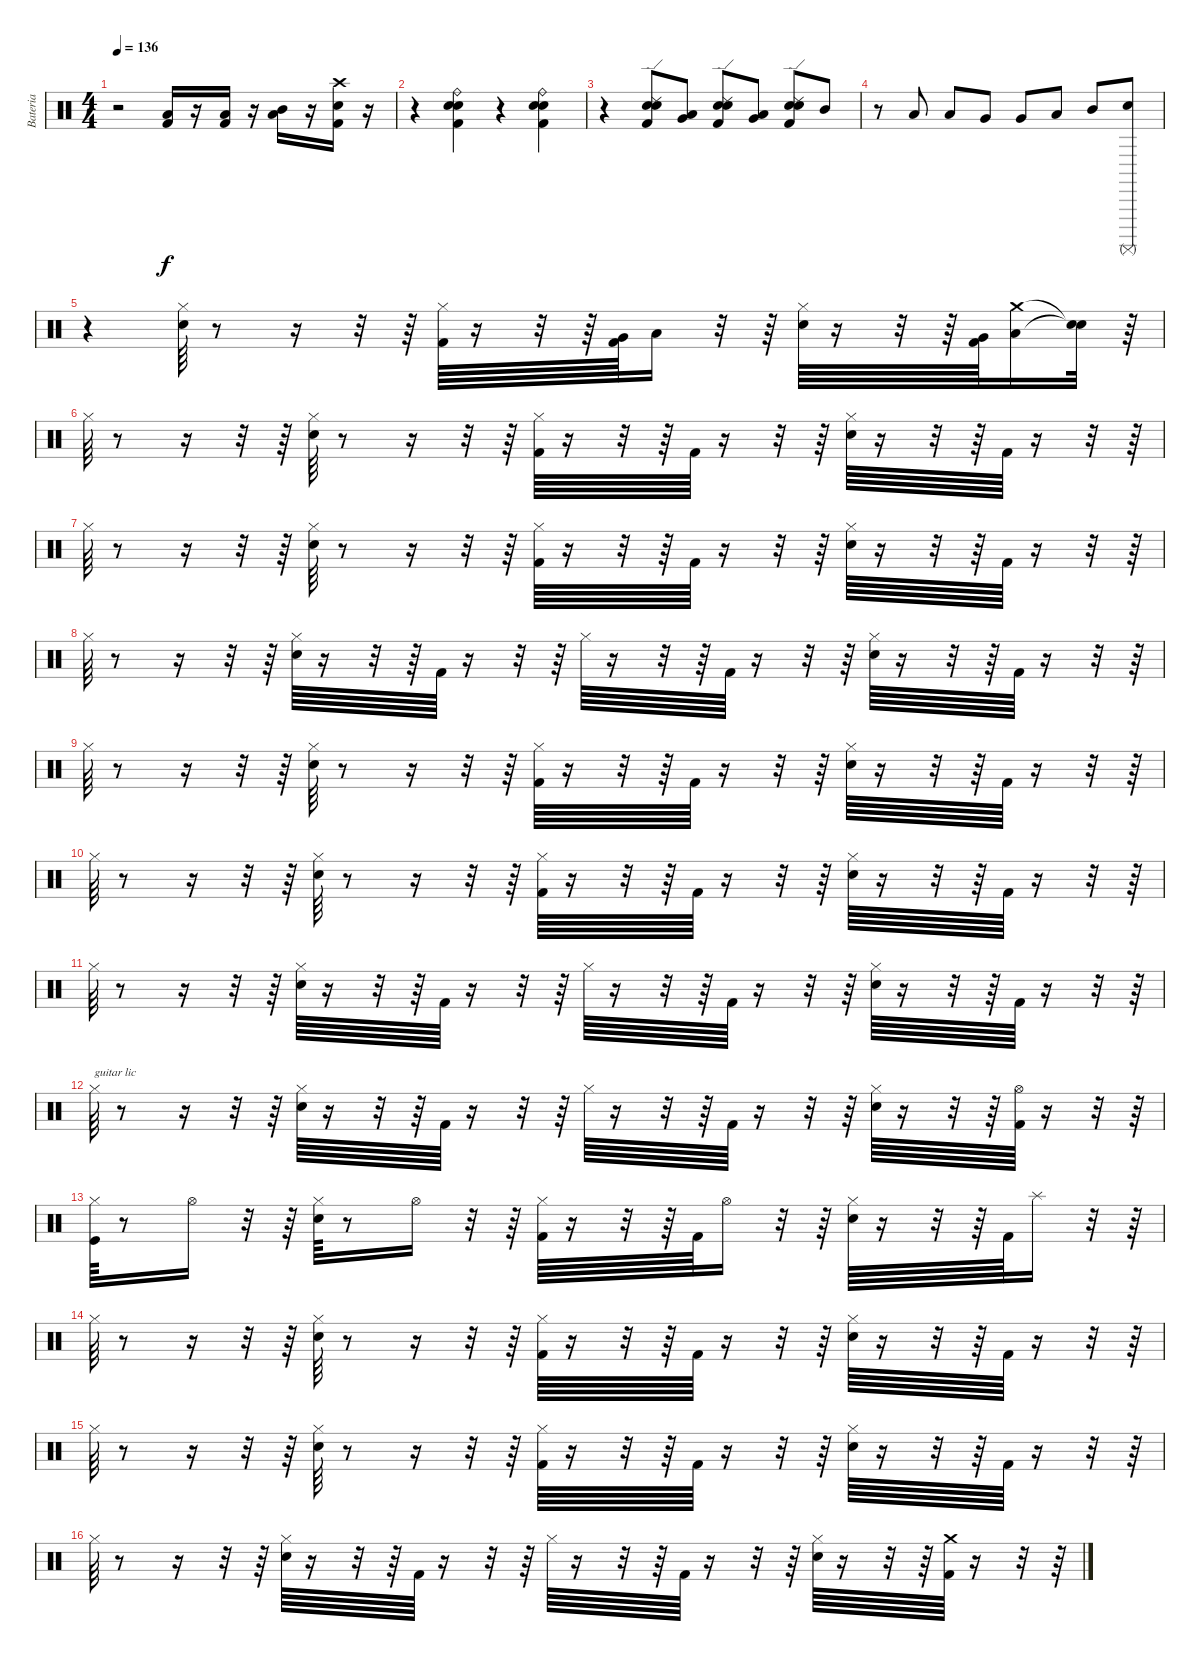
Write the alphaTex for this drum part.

\track ("Bateria" "Bateria") {instrument percussion}
\staff {score}
\articulation defaults
\ts (4 4)
\tempo 136
\clef neutral
\ks c
r.2{dy f} ("Kick (hit) 2" "Low Floor Tom (hit)").16 r.16 ("Kick (hit) 2" "Low Tom (hit)").16 r.16 ("Low Floor Tom (hit)" "Mid Tom (hit)").16 r.16 ("Electric Snare (hit)" "Kick (hit) 2" "Crash high (hit)").16 r.16 |
r.4 ("Electric Snare (hit)" "Snare (hit) 2" "Kick (hit) 2" "Ride (bell)").4 r.4 ("Electric Snare (hit)" "Snare (hit) 2" "Kick (hit) 2" "Ride (bell)").4 |
r.4 ("Electric Snare (hit)" "Snare (hit) 2" "Kick (hit) 2" "Ride (edge) 2").8 ("Low Floor Tom (hit)" "Very Low Tom (hit)").8 ("Electric Snare (hit)" "Snare (hit) 2" "Kick (hit) 2" "Ride (edge) 2").8 ("Very Low Tom (hit)" "Low Tom (hit)").8 ("Electric Snare (hit)" "Snare (hit) 2" "Kick (hit) 2" "Ride (edge) 2").8 "Mid Tom (hit)".8 |
r.8 "Low Floor Tom (hit)".8 "Low Floor Tom (hit)".8 "Very Low Tom (hit)".8 "Very Low Tom (hit)".8 "Low Tom (hit)".8 "Mid Tom (hit)".8 ("Snare (hit) 2" "Surdo (mute)").8 |
r.4 ("Snare (hit) 2" "Hi-Hat (closed)").64 r.8 r.16 r.32 r.64 ("Kick (hit) 2" "Hi-Hat (closed)").64 r.16 r.32 r.64 ("Kick (hit) 2" "Very Low Tom (hit)").64 "Low Floor Tom (hit)".16 r.32 r.64 ("Snare (hit) 2" "Hi-Hat (closed)").64 r.16 r.32 r.64 ("Kick (hit) 2" "Very Low Tom (hit)").64 ("Low Floor Tom (hit)" "Crash medium (hit)").16 ("Snare (hit)"{t} "Snare (hit)"{t}).32 r.64 |
"Hi-Hat (closed)".64 r.8 r.16 r.32 r.64 ("Snare (hit) 2" "Hi-Hat (closed)").64 r.8 r.16 r.32 r.64 ("Kick (hit) 2" "Hi-Hat (closed)").64 r.16 r.32 r.64 "Kick (hit) 2".64 r.16 r.32 r.64 ("Snare (hit) 2" "Hi-Hat (closed)").64 r.16 r.32 r.64 "Kick (hit) 2".64 r.16 r.32 r.64 |
"Hi-Hat (closed)".64 r.8 r.16 r.32 r.64 ("Snare (hit) 2" "Hi-Hat (closed)").64 r.8 r.16 r.32 r.64 ("Kick (hit) 2" "Hi-Hat (closed)").64 r.16 r.32 r.64 "Kick (hit) 2".64 r.16 r.32 r.64 ("Snare (hit) 2" "Hi-Hat (closed)").64 r.16 r.32 r.64 "Kick (hit) 2".64 r.16 r.32 r.64 |
"Hi-Hat (closed)".64 r.8 r.16 r.32 r.64 ("Snare (hit) 2" "Hi-Hat (closed)").64 r.16 r.32 r.64 "Kick (hit) 2".64 r.16 r.32 r.64 "Hi-Hat (closed)".64 r.16 r.32 r.64 "Kick (hit) 2".64 r.16 r.32 r.64 ("Snare (hit) 2" "Hi-Hat (closed)").64 r.16 r.32 r.64 "Kick (hit) 2".64 r.16 r.32 r.64 |
"Hi-Hat (closed)".64 r.8 r.16 r.32 r.64 ("Snare (hit) 2" "Hi-Hat (closed)").64 r.8 r.16 r.32 r.64 ("Kick (hit) 2" "Hi-Hat (closed)").64 r.16 r.32 r.64 "Kick (hit) 2".64 r.16 r.32 r.64 ("Snare (hit) 2" "Hi-Hat (closed)").64 r.16 r.32 r.64 "Kick (hit) 2".64 r.16 r.32 r.64 |
"Hi-Hat (closed)".64 r.8 r.16 r.32 r.64 ("Snare (hit) 2" "Hi-Hat (closed)").64 r.8 r.16 r.32 r.64 ("Kick (hit) 2" "Hi-Hat (closed)").64 r.16 r.32 r.64 "Kick (hit) 2".64 r.16 r.32 r.64 ("Snare (hit) 2" "Hi-Hat (closed)").64 r.16 r.32 r.64 "Kick (hit) 2".64 r.16 r.32 r.64 |
"Hi-Hat (closed)".64 r.8 r.16 r.32 r.64 ("Snare (hit) 2" "Hi-Hat (closed)").64 r.16 r.32 r.64 "Kick (hit) 2".64 r.16 r.32 r.64 "Hi-Hat (closed)".64 r.16 r.32 r.64 "Kick (hit) 2".64 r.16 r.32 r.64 ("Snare (hit) 2" "Hi-Hat (closed)").64 r.16 r.32 r.64 "Kick (hit) 2".64 r.16 r.32 r.64 |
"Hi-Hat (closed)".64{txt "guitar lic"} r.8 r.16 r.32 r.64 ("Snare (hit) 2" "Hi-Hat (closed)").64 r.16 r.32 r.64 "Kick (hit) 2".64 r.16 r.32 r.64 "Hi-Hat (closed)".64 r.16 r.32 r.64 "Kick (hit) 2".64 r.16 r.32 r.64 ("Snare (hit) 2" "Hi-Hat (closed)").64 r.16 r.32 r.64 ("Kick (hit) 2" "Hi-Hat (open)").64 r.16 r.32 r.64 |
("Kick (hit)" "Hi-Hat (closed)").64 r.8 "Hi-Hat (open)".16 r.32 r.64 ("Snare (hit) 2" "Hi-Hat (closed)").64 r.8 "Hi-Hat (open)".16 r.32 r.64 ("Kick (hit) 2" "Hi-Hat (closed)").64 r.16 r.32 r.64 "Kick (hit) 2".64 "Hi-Hat (open)".16 r.32 r.64 ("Snare (hit) 2" "Hi-Hat (closed)").64 r.16 r.32 r.64 "Kick (hit) 2".64 "Splash (hit)".16 r.32 r.64 |
"Hi-Hat (closed)".64 r.8 r.16 r.32 r.64 ("Snare (hit) 2" "Hi-Hat (closed)").64 r.8 r.16 r.32 r.64 ("Kick (hit) 2" "Hi-Hat (closed)").64 r.16 r.32 r.64 "Kick (hit) 2".64 r.16 r.32 r.64 ("Snare (hit) 2" "Hi-Hat (closed)").64 r.16 r.32 r.64 "Kick (hit) 2".64 r.16 r.32 r.64 |
"Hi-Hat (closed)".64 r.8 r.16 r.32 r.64 ("Snare (hit) 2" "Hi-Hat (closed)").64 r.8 r.16 r.32 r.64 ("Kick (hit) 2" "Hi-Hat (closed)").64 r.16 r.32 r.64 "Kick (hit) 2".64 r.16 r.32 r.64 ("Snare (hit) 2" "Hi-Hat (closed)").64 r.16 r.32 r.64 "Kick (hit) 2".64 r.16 r.32 r.64 |
"Hi-Hat (closed)".64 r.8 r.16 r.32 r.64 ("Snare (hit) 2" "Hi-Hat (closed)").64 r.16 r.32 r.64 "Kick (hit) 2".64 r.16 r.32 r.64 "Hi-Hat (closed)".64 r.16 r.32 r.64 "Kick (hit) 2".64 r.16 r.32 r.64 ("Snare (hit) 2" "Hi-Hat (closed)").64 r.16 r.32 r.64 ("Kick (hit) 2" "Crash medium (hit)").64 r.16 r.32 r.64
